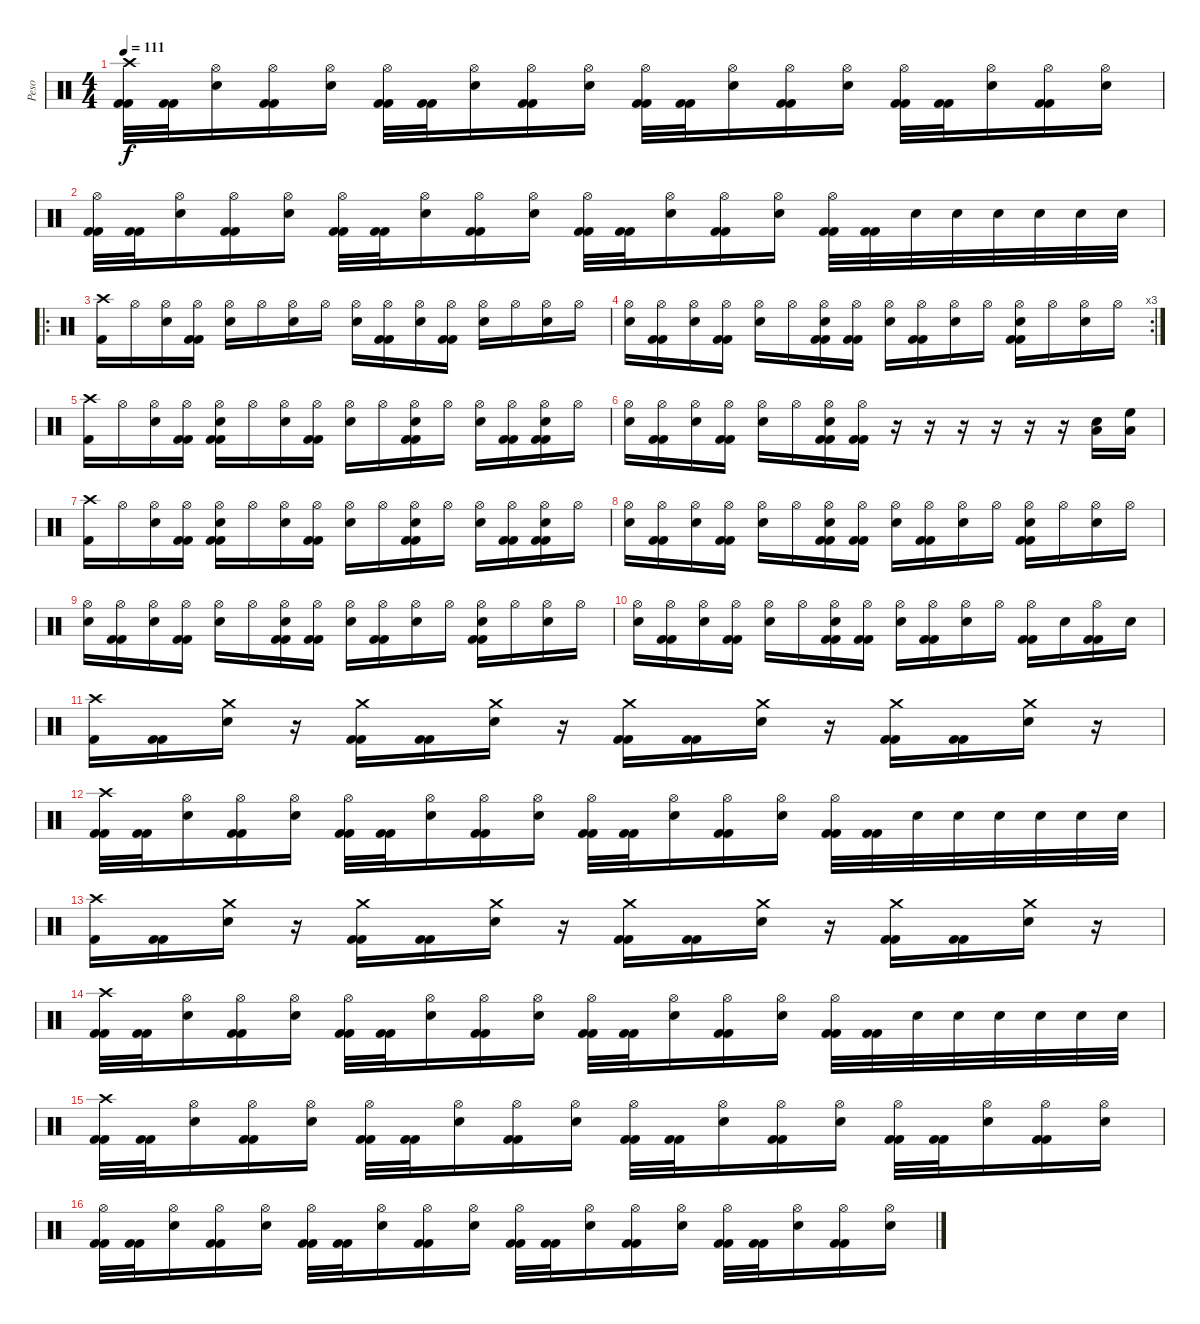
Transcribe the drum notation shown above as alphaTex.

\track ("Peso" "Peso") {instrument percussion}
\staff {score}
\articulation defaults
\ts (4 4)
\tempo 111
\clef neutral
\ks c
("Crash high (hit)" "Kick (hit) 2" "Kick (hit) 2").32{dy f} ("Kick (hit) 2" "Kick (hit) 2").32 ("Hi-Hat (open)" "Snare (hit) 2").16 ("Hi-Hat (open)" "Kick (hit) 2" "Kick (hit) 2").16 ("Hi-Hat (open)" "Snare (hit) 2").16 ("Hi-Hat (open)" "Kick (hit) 2" "Kick (hit) 2").32 ("Kick (hit) 2" "Kick (hit) 2").32 ("Hi-Hat (open)" "Snare (hit) 2").16 ("Hi-Hat (open)" "Kick (hit) 2" "Kick (hit) 2").16 ("Hi-Hat (open)" "Snare (hit) 2").16 ("Hi-Hat (open)" "Kick (hit) 2" "Kick (hit) 2").32 ("Kick (hit) 2" "Kick (hit) 2").32 ("Hi-Hat (open)" "Snare (hit) 2").16 ("Hi-Hat (open)" "Kick (hit) 2" "Kick (hit) 2").16 ("Hi-Hat (open)" "Snare (hit) 2").16 ("Hi-Hat (open)" "Kick (hit) 2" "Kick (hit) 2").32 ("Kick (hit) 2" "Kick (hit) 2").32 ("Hi-Hat (open)" "Snare (hit) 2").16 ("Hi-Hat (open)" "Kick (hit) 2" "Kick (hit) 2").16 ("Hi-Hat (open)" "Snare (hit) 2").16 |
("Hi-Hat (open)" "Kick (hit) 2" "Kick (hit) 2").32 ("Kick (hit) 2" "Kick (hit) 2").32 ("Hi-Hat (open)" "Snare (hit) 2").16 ("Hi-Hat (open)" "Kick (hit) 2" "Kick (hit) 2").16 ("Hi-Hat (open)" "Snare (hit) 2").16 ("Hi-Hat (open)" "Kick (hit) 2" "Kick (hit) 2").32 ("Kick (hit) 2" "Kick (hit) 2").32 ("Hi-Hat (open)" "Snare (hit) 2").16 ("Hi-Hat (open)" "Kick (hit) 2" "Kick (hit) 2").16 ("Hi-Hat (open)" "Snare (hit) 2").16 ("Hi-Hat (open)" "Kick (hit) 2" "Kick (hit) 2").32 ("Kick (hit) 2" "Kick (hit) 2").32 ("Hi-Hat (open)" "Snare (hit) 2").16 ("Hi-Hat (open)" "Kick (hit) 2" "Kick (hit) 2").16 ("Hi-Hat (open)" "Snare (hit) 2").16 ("Hi-Hat (open)" "Kick (hit) 2" "Kick (hit) 2").32 ("Kick (hit) 2" "Kick (hit) 2").32 "Snare (hit) 2".32 "Snare (hit) 2".32 "Snare (hit) 2".32 "Snare (hit) 2".32 "Snare (hit) 2".32 "Snare (hit) 2".32 |
\ro
\section ("" "")
("Crash high (hit)" "Kick (hit) 2").16 "Hi-Hat (open)".16 ("Hi-Hat (open)" "Snare (hit) 2").16 ("Hi-Hat (open)" "Kick (hit) 2" "Kick (hit) 2").16 ("Hi-Hat (open)" "Snare (hit) 2").16 "Hi-Hat (open)".16 ("Hi-Hat (open)" "Snare (hit) 2").16 "Hi-Hat (open)".16 ("Hi-Hat (open)" "Snare (hit) 2").16 ("Hi-Hat (open)" "Kick (hit) 2" "Kick (hit) 2").16 ("Hi-Hat (open)" "Snare (hit) 2").16 ("Hi-Hat (open)" "Kick (hit) 2" "Kick (hit) 2").16 ("Hi-Hat (open)" "Snare (hit) 2").16 "Hi-Hat (open)".16 ("Hi-Hat (open)" "Snare (hit) 2").16 "Hi-Hat (open)".16 |
\rc 3
("Hi-Hat (open)" "Snare (hit) 2").16 ("Hi-Hat (open)" "Kick (hit) 2" "Kick (hit) 2").16 ("Hi-Hat (open)" "Snare (hit) 2").16 ("Hi-Hat (open)" "Kick (hit) 2" "Kick (hit) 2").16 ("Hi-Hat (open)" "Snare (hit) 2").16 "Hi-Hat (open)".16 ("Hi-Hat (open)" "Snare (hit) 2" "Kick (hit) 2" "Kick (hit) 2").16 ("Hi-Hat (open)" "Kick (hit) 2" "Kick (hit) 2").16 ("Hi-Hat (open)" "Snare (hit) 2").16 ("Hi-Hat (open)" "Kick (hit) 2" "Kick (hit) 2").16 ("Hi-Hat (open)" "Snare (hit) 2").16 "Hi-Hat (open)".16 ("Hi-Hat (open)" "Snare (hit) 2" "Kick (hit) 2" "Kick (hit) 2").16 "Hi-Hat (open)".16 ("Hi-Hat (open)" "Snare (hit) 2").16 "Hi-Hat (open)".16 |
("Crash high (hit)" "Kick (hit) 2").16 "Hi-Hat (open)".16 ("Hi-Hat (open)" "Snare (hit) 2").16 ("Hi-Hat (open)" "Kick (hit) 2" "Kick (hit) 2").16 ("Hi-Hat (open)" "Snare (hit) 2" "Kick (hit) 2" "Kick (hit) 2").16 "Hi-Hat (open)".16 ("Hi-Hat (open)" "Snare (hit) 2").16 ("Hi-Hat (open)" "Kick (hit) 2" "Kick (hit) 2").16 ("Hi-Hat (open)" "Snare (hit) 2").16 "Hi-Hat (open)".16 ("Hi-Hat (open)" "Snare (hit) 2" "Kick (hit) 2" "Kick (hit) 2").16 "Hi-Hat (open)".16 ("Hi-Hat (open)" "Snare (hit) 2").16 ("Hi-Hat (open)" "Kick (hit) 2" "Kick (hit) 2").16 ("Hi-Hat (open)" "Snare (hit) 2" "Kick (hit) 2" "Kick (hit) 2").16 "Hi-Hat (open)".16 |
("Hi-Hat (open)" "Snare (hit) 2").16 ("Hi-Hat (open)" "Kick (hit) 2" "Kick (hit) 2").16 ("Hi-Hat (open)" "Snare (hit) 2").16 ("Hi-Hat (open)" "Kick (hit) 2" "Kick (hit) 2").16 ("Hi-Hat (open)" "Snare (hit) 2").16 "Hi-Hat (open)".16 ("Hi-Hat (open)" "Snare (hit) 2" "Kick (hit) 2" "Kick (hit) 2").16 ("Hi-Hat (open)" "Kick (hit) 2" "Kick (hit) 2").16 r.16 r.16 r.16 r.16 r.16 r.16 ("Low Floor Tom (hit)" "Snare (hit) 2").16 ("High Floor Tom (hit)" "Low Floor Tom (hit)").16 |
("Crash high (hit)" "Kick (hit) 2").16 "Hi-Hat (open)".16 ("Hi-Hat (open)" "Snare (hit) 2").16 ("Hi-Hat (open)" "Kick (hit) 2" "Kick (hit) 2").16 ("Hi-Hat (open)" "Snare (hit) 2" "Kick (hit) 2" "Kick (hit) 2").16 "Hi-Hat (open)".16 ("Hi-Hat (open)" "Snare (hit) 2").16 ("Hi-Hat (open)" "Kick (hit) 2" "Kick (hit) 2").16 ("Hi-Hat (open)" "Snare (hit) 2").16 "Hi-Hat (open)".16 ("Hi-Hat (open)" "Snare (hit) 2" "Kick (hit) 2" "Kick (hit) 2").16 "Hi-Hat (open)".16 ("Hi-Hat (open)" "Snare (hit) 2").16 ("Hi-Hat (open)" "Kick (hit) 2" "Kick (hit) 2").16 ("Hi-Hat (open)" "Snare (hit) 2" "Kick (hit) 2" "Kick (hit) 2").16 "Hi-Hat (open)".16 |
("Hi-Hat (open)" "Snare (hit) 2").16 ("Hi-Hat (open)" "Kick (hit) 2" "Kick (hit) 2").16 ("Hi-Hat (open)" "Snare (hit) 2").16 ("Hi-Hat (open)" "Kick (hit) 2" "Kick (hit) 2").16 ("Hi-Hat (open)" "Snare (hit) 2").16 "Hi-Hat (open)".16 ("Hi-Hat (open)" "Snare (hit) 2" "Kick (hit) 2" "Kick (hit) 2").16 ("Hi-Hat (open)" "Kick (hit) 2" "Kick (hit) 2").16 ("Hi-Hat (open)" "Snare (hit) 2").16 ("Hi-Hat (open)" "Kick (hit) 2" "Kick (hit) 2").16 ("Hi-Hat (open)" "Snare (hit) 2").16 "Hi-Hat (open)".16 ("Hi-Hat (open)" "Snare (hit) 2" "Kick (hit) 2" "Kick (hit) 2").16 "Hi-Hat (open)".16 ("Hi-Hat (open)" "Snare (hit) 2").16 "Hi-Hat (open)".16 |
("Hi-Hat (open)" "Snare (hit) 2").16 ("Hi-Hat (open)" "Kick (hit) 2" "Kick (hit) 2").16 ("Hi-Hat (open)" "Snare (hit) 2").16 ("Hi-Hat (open)" "Kick (hit) 2" "Kick (hit) 2").16 ("Hi-Hat (open)" "Snare (hit) 2").16 "Hi-Hat (open)".16 ("Hi-Hat (open)" "Snare (hit) 2" "Kick (hit) 2" "Kick (hit) 2").16 ("Hi-Hat (open)" "Kick (hit) 2" "Kick (hit) 2").16 ("Hi-Hat (open)" "Snare (hit) 2").16 ("Hi-Hat (open)" "Kick (hit) 2" "Kick (hit) 2").16 ("Hi-Hat (open)" "Snare (hit) 2").16 "Hi-Hat (open)".16 ("Hi-Hat (open)" "Snare (hit) 2" "Kick (hit) 2" "Kick (hit) 2").16 "Hi-Hat (open)".16 ("Hi-Hat (open)" "Snare (hit) 2").16 "Hi-Hat (open)".16 |
("Hi-Hat (open)" "Snare (hit) 2").16 ("Hi-Hat (open)" "Kick (hit) 2" "Kick (hit) 2").16 ("Hi-Hat (open)" "Snare (hit) 2").16 ("Hi-Hat (open)" "Kick (hit) 2" "Kick (hit) 2").16 ("Hi-Hat (open)" "Snare (hit) 2").16 "Hi-Hat (open)".16 ("Hi-Hat (open)" "Snare (hit) 2" "Kick (hit) 2" "Kick (hit) 2").16 ("Hi-Hat (open)" "Kick (hit) 2" "Kick (hit) 2").16 ("Hi-Hat (open)" "Snare (hit) 2").16 ("Hi-Hat (open)" "Kick (hit) 2" "Kick (hit) 2").16 ("Hi-Hat (open)" "Snare (hit) 2").16 "Hi-Hat (open)".16 ("Hi-Hat (open)" "Kick (hit) 2" "Kick (hit) 2").16 "Snare (hit) 2".16 ("Hi-Hat (open)" "Kick (hit) 2" "Kick (hit) 2").16 "Snare (hit) 2".16 |
("Crash high (hit)" "Kick (hit) 2").16 ("Kick (hit) 2" "Kick (hit) 2").16 ("Crash medium (hit)" "Snare (hit) 2").16 r.16 ("Crash medium (hit)" "Kick (hit) 2" "Kick (hit) 2").16 ("Kick (hit) 2" "Kick (hit) 2").16 ("Crash medium (hit)" "Snare (hit) 2").16 r.16 ("Crash medium (hit)" "Kick (hit) 2" "Kick (hit) 2").16 ("Kick (hit) 2" "Kick (hit) 2").16 ("Crash medium (hit)" "Snare (hit) 2").16 r.16 ("Crash medium (hit)" "Kick (hit) 2" "Kick (hit) 2").16 ("Kick (hit) 2" "Kick (hit) 2").16 ("Crash medium (hit)" "Snare (hit) 2").16 r.16 |
("Crash high (hit)" "Kick (hit) 2" "Kick (hit) 2").32 ("Kick (hit) 2" "Kick (hit) 2").32 ("Hi-Hat (open)" "Snare (hit) 2").16 ("Hi-Hat (open)" "Kick (hit) 2" "Kick (hit) 2").16 ("Hi-Hat (open)" "Snare (hit) 2").16 ("Hi-Hat (open)" "Kick (hit) 2" "Kick (hit) 2").32 ("Kick (hit) 2" "Kick (hit) 2").32 ("Hi-Hat (open)" "Snare (hit) 2").16 ("Hi-Hat (open)" "Kick (hit) 2" "Kick (hit) 2").16 ("Hi-Hat (open)" "Snare (hit) 2").16 ("Hi-Hat (open)" "Kick (hit) 2" "Kick (hit) 2").32 ("Kick (hit) 2" "Kick (hit) 2").32 ("Hi-Hat (open)" "Snare (hit) 2").16 ("Hi-Hat (open)" "Kick (hit) 2" "Kick (hit) 2").16 ("Hi-Hat (open)" "Snare (hit) 2").16 ("Hi-Hat (open)" "Kick (hit) 2" "Kick (hit) 2").32 ("Kick (hit) 2" "Kick (hit) 2").32 "Snare (hit) 2".32 "Snare (hit) 2".32 "Snare (hit) 2".32 "Snare (hit) 2".32 "Snare (hit) 2".32 "Snare (hit) 2".32 |
("Crash high (hit)" "Kick (hit) 2").16 ("Kick (hit) 2" "Kick (hit) 2").16 ("Crash medium (hit)" "Snare (hit) 2").16 r.16 ("Crash medium (hit)" "Kick (hit) 2" "Kick (hit) 2").16 ("Kick (hit) 2" "Kick (hit) 2").16 ("Crash medium (hit)" "Snare (hit) 2").16 r.16 ("Crash medium (hit)" "Kick (hit) 2" "Kick (hit) 2").16 ("Kick (hit) 2" "Kick (hit) 2").16 ("Crash medium (hit)" "Snare (hit) 2").16 r.16 ("Crash medium (hit)" "Kick (hit) 2" "Kick (hit) 2").16 ("Kick (hit) 2" "Kick (hit) 2").16 ("Crash medium (hit)" "Snare (hit) 2").16 r.16 |
("Crash high (hit)" "Kick (hit) 2" "Kick (hit) 2").32 ("Kick (hit) 2" "Kick (hit) 2").32 ("Hi-Hat (open)" "Snare (hit) 2").16 ("Hi-Hat (open)" "Kick (hit) 2" "Kick (hit) 2").16 ("Hi-Hat (open)" "Snare (hit) 2").16 ("Hi-Hat (open)" "Kick (hit) 2" "Kick (hit) 2").32 ("Kick (hit) 2" "Kick (hit) 2").32 ("Hi-Hat (open)" "Snare (hit) 2").16 ("Hi-Hat (open)" "Kick (hit) 2" "Kick (hit) 2").16 ("Hi-Hat (open)" "Snare (hit) 2").16 ("Hi-Hat (open)" "Kick (hit) 2" "Kick (hit) 2").32 ("Kick (hit) 2" "Kick (hit) 2").32 ("Hi-Hat (open)" "Snare (hit) 2").16 ("Hi-Hat (open)" "Kick (hit) 2" "Kick (hit) 2").16 ("Hi-Hat (open)" "Snare (hit) 2").16 ("Hi-Hat (open)" "Kick (hit) 2" "Kick (hit) 2").32 ("Kick (hit) 2" "Kick (hit) 2").32 "Snare (hit) 2".32 "Snare (hit) 2".32 "Snare (hit) 2".32 "Snare (hit) 2".32 "Snare (hit) 2".32 "Snare (hit) 2".32 |
("Crash high (hit)" "Kick (hit) 2" "Kick (hit) 2").32 ("Kick (hit) 2" "Kick (hit) 2").32 ("Hi-Hat (open)" "Snare (hit) 2").16 ("Hi-Hat (open)" "Kick (hit) 2" "Kick (hit) 2").16 ("Hi-Hat (open)" "Snare (hit) 2").16 ("Hi-Hat (open)" "Kick (hit) 2" "Kick (hit) 2").32 ("Kick (hit) 2" "Kick (hit) 2").32 ("Hi-Hat (open)" "Snare (hit) 2").16 ("Hi-Hat (open)" "Kick (hit) 2" "Kick (hit) 2").16 ("Hi-Hat (open)" "Snare (hit) 2").16 ("Hi-Hat (open)" "Kick (hit) 2" "Kick (hit) 2").32 ("Kick (hit) 2" "Kick (hit) 2").32 ("Hi-Hat (open)" "Snare (hit) 2").16 ("Hi-Hat (open)" "Kick (hit) 2" "Kick (hit) 2").16 ("Hi-Hat (open)" "Snare (hit) 2").16 ("Hi-Hat (open)" "Kick (hit) 2" "Kick (hit) 2").32 ("Kick (hit) 2" "Kick (hit) 2").32 ("Hi-Hat (open)" "Snare (hit) 2").16 ("Hi-Hat (open)" "Kick (hit) 2" "Kick (hit) 2").16 ("Hi-Hat (open)" "Snare (hit) 2").16 |
("Hi-Hat (open)" "Kick (hit) 2" "Kick (hit) 2").32 ("Kick (hit) 2" "Kick (hit) 2").32 ("Hi-Hat (open)" "Snare (hit) 2").16 ("Hi-Hat (open)" "Kick (hit) 2" "Kick (hit) 2").16 ("Hi-Hat (open)" "Snare (hit) 2").16 ("Hi-Hat (open)" "Kick (hit) 2" "Kick (hit) 2").32 ("Kick (hit) 2" "Kick (hit) 2").32 ("Hi-Hat (open)" "Snare (hit) 2").16 ("Hi-Hat (open)" "Kick (hit) 2" "Kick (hit) 2").16 ("Hi-Hat (open)" "Snare (hit) 2").16 ("Hi-Hat (open)" "Kick (hit) 2" "Kick (hit) 2").32 ("Kick (hit) 2" "Kick (hit) 2").32 ("Hi-Hat (open)" "Snare (hit) 2").16 ("Hi-Hat (open)" "Kick (hit) 2" "Kick (hit) 2").16 ("Hi-Hat (open)" "Snare (hit) 2").16 ("Hi-Hat (open)" "Kick (hit) 2" "Kick (hit) 2").32 ("Kick (hit) 2" "Kick (hit) 2").32 ("Hi-Hat (open)" "Snare (hit) 2").16 ("Hi-Hat (open)" "Kick (hit) 2" "Kick (hit) 2").16 ("Hi-Hat (open)" "Snare (hit) 2").16
